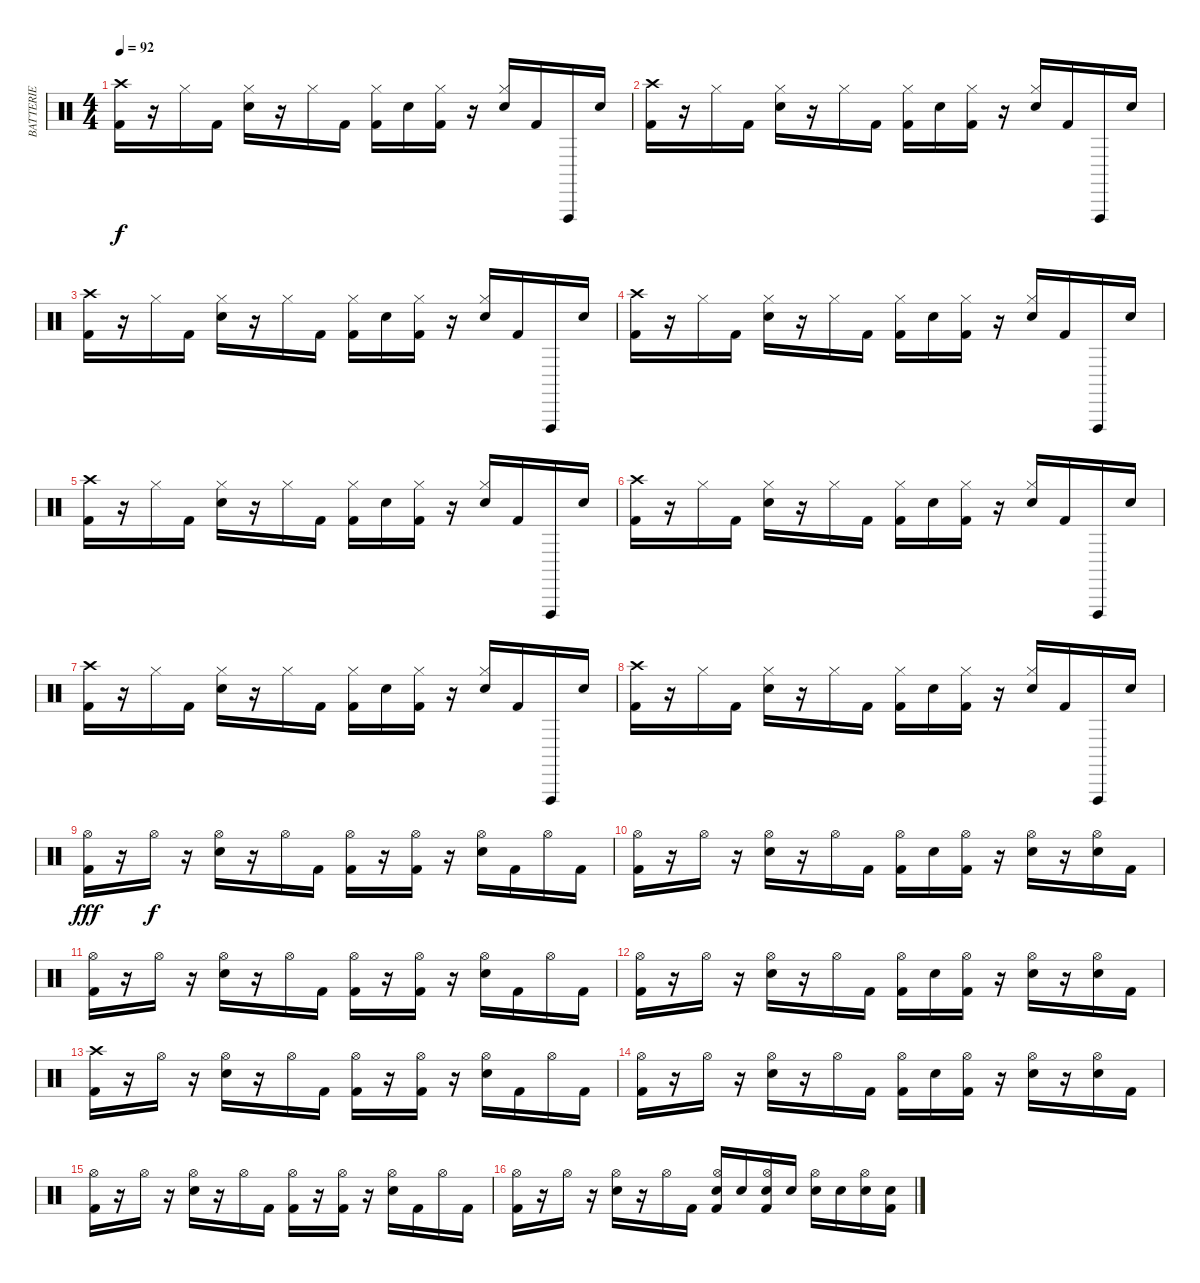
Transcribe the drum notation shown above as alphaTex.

\track ("BATTERIE" "BATTERIE") {instrument percussion}
\staff {score}
\articulation defaults
\ts (4 4)
\tempo 92
\clef neutral
\ks c
("Crash high (hit)" "Kick (hit) 2").16{dy f} r.16 "Hi-Hat (closed)".16 "Kick (hit) 2".16 ("Hi-Hat (closed)" "Snare (hit) 2").16 r.16 "Hi-Hat (closed)".16 "Kick (hit) 2".16 ("Hi-Hat (closed)" "Kick (hit) 2").16 "Snare (hit) 2".16 ("Hi-Hat (closed)" "Kick (hit) 2").16 r.16 ("Hi-Hat (closed)" "Snare (hit) 2").16 "Kick (hit) 2".16 "Vibraslap (hit)".16 "Snare (hit) 2".16 |
("Crash high (hit)" "Kick (hit) 2").16 r.16 "Hi-Hat (closed)".16 "Kick (hit) 2".16 ("Hi-Hat (closed)" "Snare (hit) 2").16 r.16 "Hi-Hat (closed)".16 "Kick (hit) 2".16 ("Hi-Hat (closed)" "Kick (hit) 2").16 "Snare (hit) 2".16 ("Hi-Hat (closed)" "Kick (hit) 2").16 r.16 ("Hi-Hat (closed)" "Snare (hit) 2").16 "Kick (hit) 2".16 "Vibraslap (hit)".16 "Snare (hit) 2".16 |
("Crash high (hit)" "Kick (hit) 2").16 r.16 "Hi-Hat (closed)".16 "Kick (hit) 2".16 ("Hi-Hat (closed)" "Snare (hit) 2").16 r.16 "Hi-Hat (closed)".16 "Kick (hit) 2".16 ("Hi-Hat (closed)" "Kick (hit) 2").16 "Snare (hit) 2".16 ("Hi-Hat (closed)" "Kick (hit) 2").16 r.16 ("Hi-Hat (closed)" "Snare (hit) 2").16 "Kick (hit) 2".16 "Vibraslap (hit)".16 "Snare (hit) 2".16 |
("Crash high (hit)" "Kick (hit) 2").16 r.16 "Hi-Hat (closed)".16 "Kick (hit) 2".16 ("Hi-Hat (closed)" "Snare (hit) 2").16 r.16 "Hi-Hat (closed)".16 "Kick (hit) 2".16 ("Hi-Hat (closed)" "Kick (hit) 2").16 "Snare (hit) 2".16 ("Hi-Hat (closed)" "Kick (hit) 2").16 r.16 ("Hi-Hat (closed)" "Snare (hit) 2").16 "Kick (hit) 2".16 "Vibraslap (hit)".16 "Snare (hit) 2".16 |
("Crash high (hit)" "Kick (hit) 2").16 r.16 "Hi-Hat (closed)".16 "Kick (hit) 2".16 ("Hi-Hat (closed)" "Snare (hit) 2").16 r.16 "Hi-Hat (closed)".16 "Kick (hit) 2".16 ("Hi-Hat (closed)" "Kick (hit) 2").16 "Snare (hit) 2".16 ("Hi-Hat (closed)" "Kick (hit) 2").16 r.16 ("Hi-Hat (closed)" "Snare (hit) 2").16 "Kick (hit) 2".16 "Vibraslap (hit)".16 "Snare (hit) 2".16 |
("Crash high (hit)" "Kick (hit) 2").16 r.16 "Hi-Hat (closed)".16 "Kick (hit) 2".16 ("Hi-Hat (closed)" "Snare (hit) 2").16 r.16 "Hi-Hat (closed)".16 "Kick (hit) 2".16 ("Hi-Hat (closed)" "Kick (hit) 2").16 "Snare (hit) 2".16 ("Hi-Hat (closed)" "Kick (hit) 2").16 r.16 ("Hi-Hat (closed)" "Snare (hit) 2").16 "Kick (hit) 2".16 "Vibraslap (hit)".16 "Snare (hit) 2".16 |
("Crash high (hit)" "Kick (hit) 2").16 r.16 "Hi-Hat (closed)".16 "Kick (hit) 2".16 ("Hi-Hat (closed)" "Snare (hit) 2").16 r.16 "Hi-Hat (closed)".16 "Kick (hit) 2".16 ("Hi-Hat (closed)" "Kick (hit) 2").16 "Snare (hit) 2".16 ("Hi-Hat (closed)" "Kick (hit) 2").16 r.16 ("Hi-Hat (closed)" "Snare (hit) 2").16 "Kick (hit) 2".16 "Vibraslap (hit)".16 "Snare (hit) 2".16 |
("Crash high (hit)" "Kick (hit) 2").16 r.16 "Hi-Hat (closed)".16 "Kick (hit) 2".16 ("Hi-Hat (closed)" "Snare (hit) 2").16 r.16 "Hi-Hat (closed)".16 "Kick (hit) 2".16 ("Hi-Hat (closed)" "Kick (hit) 2").16 "Snare (hit) 2".16 ("Hi-Hat (closed)" "Kick (hit) 2").16 r.16 ("Hi-Hat (closed)" "Snare (hit) 2").16 "Kick (hit) 2".16 "Vibraslap (hit)".16 "Snare (hit) 2".16 |
("Hi-Hat (open)" "Kick (hit) 2").16{dy fff} r.16 "Hi-Hat (open)".16{dy f} r.16 ("Hi-Hat (open)" "Snare (hit) 2").16 r.16 "Hi-Hat (open)".16 "Kick (hit) 2".16 ("Hi-Hat (open)" "Kick (hit) 2").16 r.16 ("Hi-Hat (open)" "Kick (hit) 2").16 r.16 ("Hi-Hat (open)" "Snare (hit) 2").16 "Kick (hit) 2".16 "Hi-Hat (open)".16 "Kick (hit) 2".16 |
("Hi-Hat (open)" "Kick (hit) 2").16 r.16 "Hi-Hat (open)".16 r.16 ("Hi-Hat (open)" "Snare (hit) 2").16 r.16 "Hi-Hat (open)".16 "Kick (hit) 2".16 ("Hi-Hat (open)" "Kick (hit) 2").16 "Snare (hit) 2".16 ("Hi-Hat (open)" "Kick (hit) 2").16 r.16 ("Hi-Hat (open)" "Snare (hit) 2").16 r.16 ("Hi-Hat (open)" "Snare (hit) 2").16 "Kick (hit) 2".16 |
("Hi-Hat (open)" "Kick (hit) 2").16 r.16 "Hi-Hat (open)".16 r.16 ("Hi-Hat (open)" "Snare (hit) 2").16 r.16 "Hi-Hat (open)".16 "Kick (hit) 2".16 ("Hi-Hat (open)" "Kick (hit) 2").16 r.16 ("Hi-Hat (open)" "Kick (hit) 2").16 r.16 ("Hi-Hat (open)" "Snare (hit) 2").16 "Kick (hit) 2".16 "Hi-Hat (open)".16 "Kick (hit) 2".16 |
("Hi-Hat (open)" "Kick (hit) 2").16 r.16 "Hi-Hat (open)".16 r.16 ("Hi-Hat (open)" "Snare (hit) 2").16 r.16 "Hi-Hat (open)".16 "Kick (hit) 2".16 ("Hi-Hat (open)" "Kick (hit) 2").16 "Snare (hit) 2".16 ("Hi-Hat (open)" "Kick (hit) 2").16 r.16 ("Hi-Hat (open)" "Snare (hit) 2").16 r.16 ("Hi-Hat (open)" "Snare (hit) 2").16 "Kick (hit) 2".16 |
("Crash high (hit)" "Kick (hit) 2").16 r.16 "Hi-Hat (open)".16 r.16 ("Hi-Hat (open)" "Snare (hit) 2").16 r.16 "Hi-Hat (open)".16 "Kick (hit) 2".16 ("Hi-Hat (open)" "Kick (hit) 2").16 r.16 ("Hi-Hat (open)" "Kick (hit) 2").16 r.16 ("Hi-Hat (open)" "Snare (hit) 2").16 "Kick (hit) 2".16 "Hi-Hat (open)".16 "Kick (hit) 2".16 |
("Hi-Hat (open)" "Kick (hit) 2").16 r.16 "Hi-Hat (open)".16 r.16 ("Hi-Hat (open)" "Snare (hit) 2").16 r.16 "Hi-Hat (open)".16 "Kick (hit) 2".16 ("Hi-Hat (open)" "Kick (hit) 2").16 "Snare (hit) 2".16 ("Hi-Hat (open)" "Kick (hit) 2").16 r.16 ("Hi-Hat (open)" "Snare (hit) 2").16 r.16 ("Hi-Hat (open)" "Snare (hit) 2").16 "Kick (hit) 2".16 |
("Hi-Hat (open)" "Kick (hit) 2").16 r.16 "Hi-Hat (open)".16 r.16 ("Hi-Hat (open)" "Snare (hit) 2").16 r.16 "Hi-Hat (open)".16 "Kick (hit) 2".16 ("Hi-Hat (open)" "Kick (hit) 2").16 r.16 ("Hi-Hat (open)" "Kick (hit) 2").16 r.16 ("Hi-Hat (open)" "Snare (hit) 2").16 "Kick (hit) 2".16 "Hi-Hat (open)".16 "Kick (hit) 2".16 |
("Hi-Hat (open)" "Kick (hit) 2").16 r.16 "Hi-Hat (open)".16 r.16 ("Hi-Hat (open)" "Snare (hit) 2").16 r.16 "Hi-Hat (open)".16 "Kick (hit) 2".16 ("Hi-Hat (open)" "Electric Snare (hit)" "Kick (hit) 2").16 "Electric Snare (hit)".16 ("Hi-Hat (open)" "Electric Snare (hit)" "Kick (hit) 2").16 "Electric Snare (hit)".16 ("Hi-Hat (open)" "Electric Snare (hit)").16 "Electric Snare (hit)".16 ("Hi-Hat (open)" "Snare (hit) 2").16 ("Snare (hit) 2" "Kick (hit) 2").16
